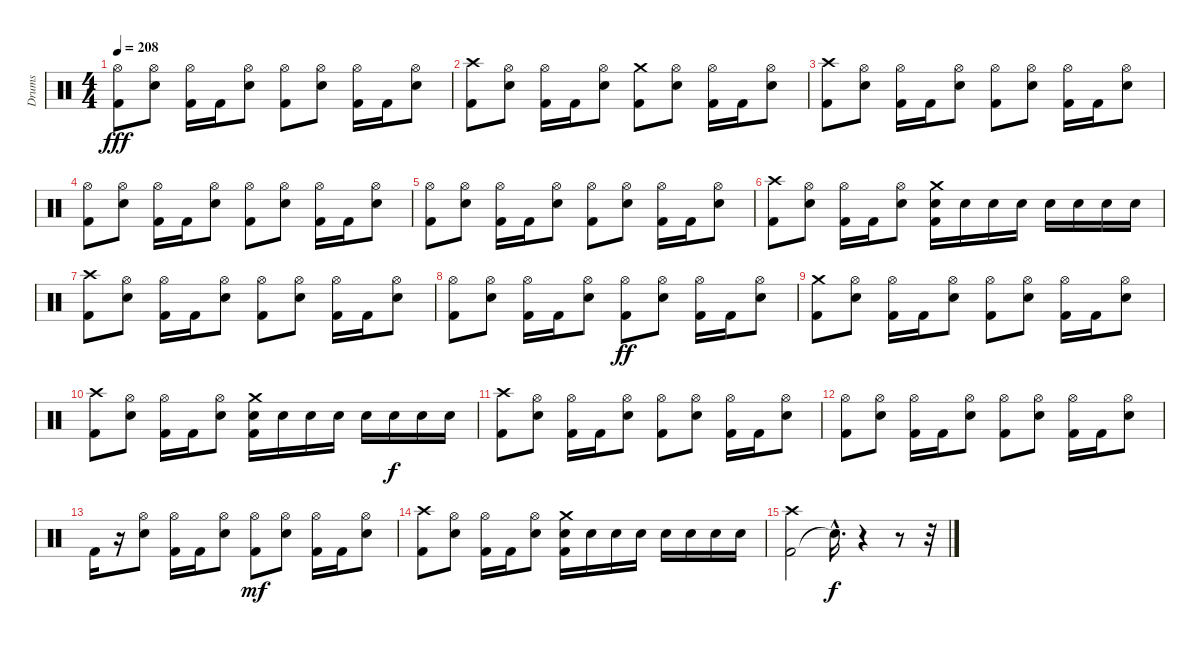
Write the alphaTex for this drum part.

\track ("Drums" "Drums") {instrument percussion}
\staff {score}
\articulation defaults
\ts (4 4)
\tempo 208
\clef neutral
\ks c
("Hi-Hat (open)" "Kick (hit) 2").8{dy fff} ("Electric Snare (hit)" "Hi-Hat (open)").8 ("Hi-Hat (open)" "Kick (hit) 2").16 "Kick (hit) 2".16 ("Electric Snare (hit)" "Hi-Hat (open)").8 ("Hi-Hat (open)" "Kick (hit) 2").8 ("Electric Snare (hit)" "Hi-Hat (open)").8 ("Hi-Hat (open)" "Kick (hit) 2").16 "Kick (hit) 2".16 ("Electric Snare (hit)" "Hi-Hat (open)").8 |
("Kick (hit) 2" "Crash high (hit)").8 ("Electric Snare (hit)" "Hi-Hat (open)").8 ("Hi-Hat (open)" "Kick (hit) 2").16 "Kick (hit) 2".16 ("Electric Snare (hit)" "Hi-Hat (open)").8 ("Crash medium (hit)" "Kick (hit) 2").8 ("Electric Snare (hit)" "Hi-Hat (open)").8 ("Kick (hit) 2" "Hi-Hat (open)").16 "Kick (hit) 2".16 ("Electric Snare (hit)" "Hi-Hat (open)").8 |
("Kick (hit) 2" "Crash high (hit)").8 ("Electric Snare (hit)" "Hi-Hat (open)").8 ("Hi-Hat (open)" "Kick (hit) 2").16 "Kick (hit) 2".16 ("Electric Snare (hit)" "Hi-Hat (open)").8 ("Hi-Hat (open)" "Kick (hit) 2").8 ("Electric Snare (hit)" "Hi-Hat (open)").8 ("Hi-Hat (open)" "Kick (hit) 2").16 "Kick (hit) 2".16 ("Electric Snare (hit)" "Hi-Hat (open)").8 |
("Hi-Hat (open)" "Kick (hit) 2").8 ("Electric Snare (hit)" "Hi-Hat (open)").8 ("Hi-Hat (open)" "Kick (hit) 2").16 "Kick (hit) 2".16 ("Electric Snare (hit)" "Hi-Hat (open)").8 ("Hi-Hat (open)" "Kick (hit) 2").8 ("Electric Snare (hit)" "Hi-Hat (open)").8 ("Hi-Hat (open)" "Kick (hit) 2").16 "Kick (hit) 2".16 ("Electric Snare (hit)" "Hi-Hat (open)").8 |
("Hi-Hat (open)" "Kick (hit) 2").8 ("Electric Snare (hit)" "Hi-Hat (open)").8 ("Hi-Hat (open)" "Kick (hit) 2").16 "Kick (hit) 2".16 ("Electric Snare (hit)" "Hi-Hat (open)").8 ("Hi-Hat (open)" "Kick (hit) 2").8 ("Electric Snare (hit)" "Hi-Hat (open)").8 ("Hi-Hat (open)" "Kick (hit) 2").16 "Kick (hit) 2".16 ("Electric Snare (hit)" "Hi-Hat (open)").8 |
("Kick (hit) 2" "Crash high (hit)").8 ("Electric Snare (hit)" "Hi-Hat (open)").8 ("Hi-Hat (open)" "Kick (hit) 2").16 "Kick (hit) 2".16 ("Electric Snare (hit)" "Hi-Hat (open)").8 ("Kick (hit) 2" "Electric Snare (hit)" "Crash medium (hit)").16 "Electric Snare (hit)".16 "Electric Snare (hit)".16 "Electric Snare (hit)".16 "Electric Snare (hit)".16 "Electric Snare (hit)".16 "Electric Snare (hit)".16 "Electric Snare (hit)".16 |
("Kick (hit) 2" "Crash high (hit)").8 ("Electric Snare (hit)" "Hi-Hat (open)").8 ("Hi-Hat (open)" "Kick (hit) 2").16 "Kick (hit) 2".16 ("Electric Snare (hit)" "Hi-Hat (open)").8 ("Hi-Hat (open)" "Kick (hit) 2").8 ("Electric Snare (hit)" "Hi-Hat (open)").8 ("Hi-Hat (open)" "Kick (hit) 2").16 "Kick (hit) 2".16 ("Electric Snare (hit)" "Hi-Hat (open)").8 |
("Hi-Hat (open)" "Kick (hit) 2").8 ("Electric Snare (hit)" "Hi-Hat (open)").8 ("Hi-Hat (open)" "Kick (hit) 2").16 "Kick (hit) 2".16 ("Electric Snare (hit)" "Hi-Hat (open)").8 ("Hi-Hat (open)" "Kick (hit) 2").8{dy ff} ("Electric Snare (hit)" "Hi-Hat (open)").8 ("Hi-Hat (open)" "Kick (hit) 2").16 "Kick (hit) 2".16 ("Electric Snare (hit)" "Hi-Hat (open)").8 |
("Kick (hit) 2" "Crash medium (hit)").8 ("Electric Snare (hit)" "Hi-Hat (open)").8 ("Hi-Hat (open)" "Kick (hit) 2").16 "Kick (hit) 2".16 ("Electric Snare (hit)" "Hi-Hat (open)").8 ("Hi-Hat (open)" "Kick (hit) 2").8 ("Electric Snare (hit)" "Hi-Hat (open)").8 ("Hi-Hat (open)" "Kick (hit) 2").16 "Kick (hit) 2".16 ("Electric Snare (hit)" "Hi-Hat (open)").8 |
("Kick (hit) 2" "Crash high (hit)").8 ("Electric Snare (hit)" "Hi-Hat (open)").8 ("Hi-Hat (open)" "Kick (hit) 2").16 "Kick (hit) 2".16 ("Electric Snare (hit)" "Hi-Hat (open)").8 ("Kick (hit) 2" "Electric Snare (hit)" "Crash medium (hit)").16 "Electric Snare (hit)".16 "Electric Snare (hit)".16 "Electric Snare (hit)".16 "Electric Snare (hit)".16 "Electric Snare (hit)".16{dy f} "Electric Snare (hit)".16 "Electric Snare (hit)".16 |
("Kick (hit) 2" "Crash high (hit)").8 ("Electric Snare (hit)" "Hi-Hat (open)").8 ("Hi-Hat (open)" "Kick (hit) 2").16 "Kick (hit) 2".16 ("Electric Snare (hit)" "Hi-Hat (open)").8 ("Hi-Hat (open)" "Kick (hit) 2").8 ("Electric Snare (hit)" "Hi-Hat (open)").8 ("Hi-Hat (open)" "Kick (hit) 2").16 "Kick (hit) 2".16 ("Electric Snare (hit)" "Hi-Hat (open)").8 |
("Hi-Hat (open)" "Kick (hit) 2").8 ("Electric Snare (hit)" "Hi-Hat (open)").8 ("Hi-Hat (open)" "Kick (hit) 2").16 "Kick (hit) 2".16 ("Electric Snare (hit)" "Hi-Hat (open)").8 ("Hi-Hat (open)" "Kick (hit) 2").8 ("Electric Snare (hit)" "Hi-Hat (open)").8 ("Hi-Hat (open)" "Kick (hit) 2").16 "Kick (hit) 2".16 ("Electric Snare (hit)" "Hi-Hat (open)").8 |
"Kick (hit) 2".16 r.16 ("Electric Snare (hit)" "Hi-Hat (open)").8 ("Hi-Hat (open)" "Kick (hit) 2").16 "Kick (hit) 2".16 ("Electric Snare (hit)" "Hi-Hat (open)").8 ("Hi-Hat (open)" "Kick (hit) 2").8{dy mf} ("Electric Snare (hit)" "Hi-Hat (open)").8 ("Hi-Hat (open)" "Kick (hit) 2").16 "Kick (hit) 2".16 ("Electric Snare (hit)" "Hi-Hat (open)").8 |
("Kick (hit) 2" "Crash high (hit)").8 ("Electric Snare (hit)" "Hi-Hat (open)").8 ("Hi-Hat (open)" "Kick (hit) 2").16 "Kick (hit) 2".16 ("Electric Snare (hit)" "Hi-Hat (open)").8 ("Kick (hit) 2" "Electric Snare (hit)" "Crash medium (hit)").16 "Electric Snare (hit)".16 "Electric Snare (hit)".16 "Electric Snare (hit)".16 "Electric Snare (hit)".16 "Electric Snare (hit)".16 "Electric Snare (hit)".16 "Electric Snare (hit)".16 |
("Kick (hit) 2" "Crash high (hit)").2 "Snare (hit)"{hac t}.16{d dy f} r.4 r.8 r.32
